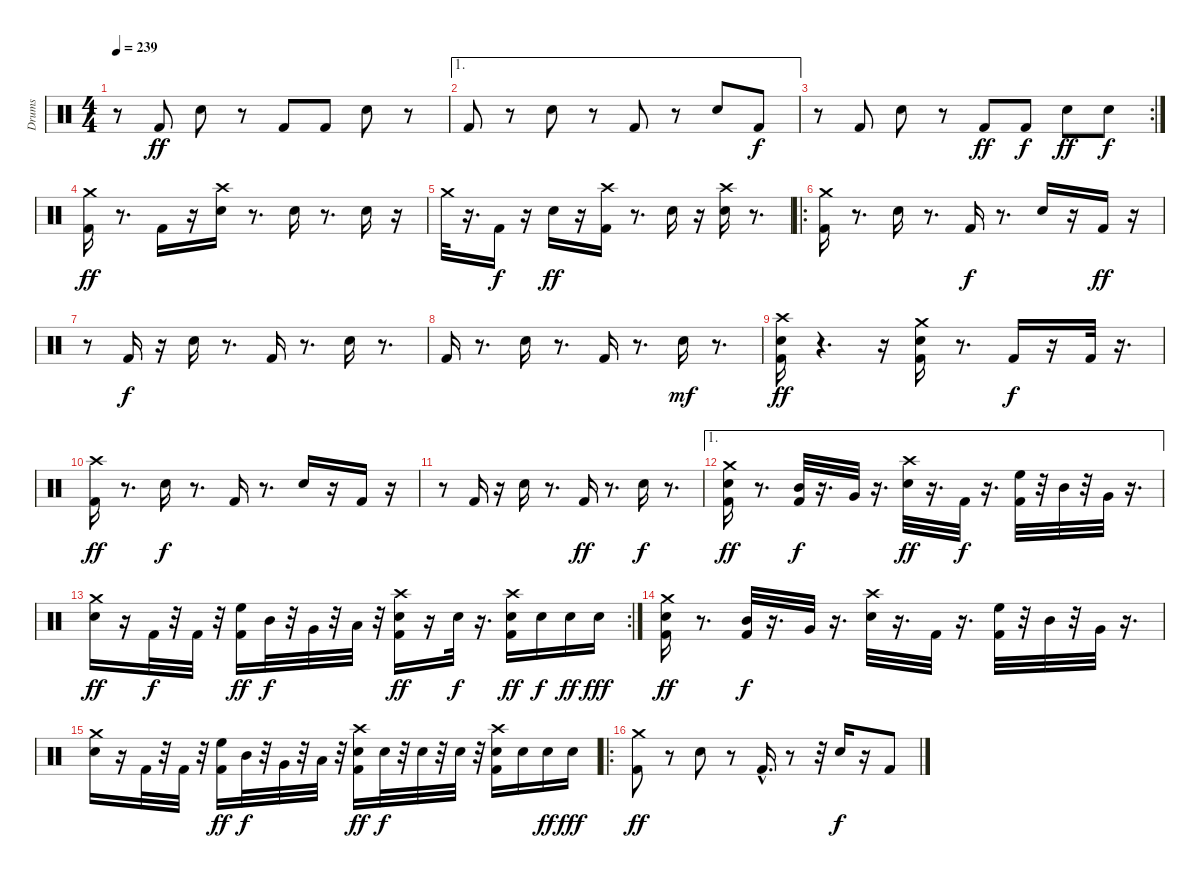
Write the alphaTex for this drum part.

\track ("Drums" "Drums") {instrument percussion}
\staff {score}
\articulation defaults
\ts (4 4)
\tempo 239
\clef neutral
\ks c
r.8{dy ff} "Kick (hit) 2".8 "Snare (hit) 2".8 r.8 "Kick (hit) 2".8 "Kick (hit) 2".8 "Snare (hit) 2".8 r.8 |
\ae 1 "Kick (hit) 2".8
r.8 "Snare (hit) 2".8 r.8 "Kick (hit) 2".8 r.8 "Snare (hit) 2".8 "Kick (hit) 2".8{dy f} |
\rc 2
r.8 "Kick (hit) 2".8 "Snare (hit) 2".8 r.8 "Kick (hit) 2".8{dy ff} "Kick (hit) 2".8{dy f} "Snare (hit) 2".8{dy ff} "Snare (hit) 2".8{dy f} |
("Kick (hit) 2" "Crash medium (hit)").16{dy ff} r.8{d} "Kick (hit) 2".16 r.16 ("Snare (hit) 2" "Crash high (hit)").16 r.8{d} "Snare (hit) 2".16 r.8{d} "Snare (hit) 2".16 r.16 |
"Crash medium (hit)".32 r.16{d} "Kick (hit) 2".16{dy f} r.16 "Snare (hit) 2".16{dy ff} r.16 ("Kick (hit) 2" "Crash high (hit)").16 r.8{d} "Snare (hit) 2".16 r.16 ("Snare (hit) 2" "Crash high (hit)").16 r.8{d} |
\ro
("Kick (hit) 2" "Crash medium (hit)").16 r.8{d} "Snare (hit) 2".16 r.8{d} "Kick (hit) 2".16{dy f} r.8{d} "Snare (hit) 2".16 r.16 "Kick (hit) 2".16{dy ff} r.16 |
r.8 "Kick (hit) 2".16{dy f} r.16 "Snare (hit) 2".16 r.8{d} "Kick (hit) 2".16 r.8{d} "Snare (hit) 2".16 r.8{d} |
"Kick (hit) 2".16 r.8{d} "Snare (hit) 2".16 r.8{d} "Kick (hit) 2".16 r.8{d} "Snare (hit) 2".16{dy mf} r.8{d} |
("Snare (hit) 2" "Kick (hit) 2" "Crash high (hit)").16{dy ff} r.4{d} r.16 ("Kick (hit) 2" "Crash medium (hit)" "Snare (hit) 2").16 r.8{d} "Kick (hit) 2".16{dy f} r.16 "Kick (hit) 2".32 r.16{d} |
("Kick (hit) 2" "Crash high (hit)").16{dy ff} r.8{d} "Snare (hit) 2".16{dy f} r.8{d} "Kick (hit) 2".16 r.8{d} "Snare (hit) 2".16 r.16 "Kick (hit) 2".16 r.16 |
r.8 "Kick (hit) 2".16 r.16 "Snare (hit) 2".16 r.8{d} "Kick (hit) 2".16{dy ff} r.8{d} "Snare (hit) 2".16{dy f} r.8{d} |
\ae 1
("Snare (hit) 2" "Crash medium (hit)" "Kick (hit) 2").16{dy ff} r.8{d} ("Kick (hit) 2" "Mid Tom (hit)").32{dy f} r.16{d} "Very Low Tom (hit)".32 r.16{d} ("Snare (hit) 2" "Crash high (hit)").32{dy ff} r.16{d} "Kick (hit) 2".32{dy f} r.16{d} ("Kick (hit) 2" "High Floor Tom (hit)").32 r.32 "Mid Tom (hit)".32 r.32 "Very Low Tom (hit)".32 r.16{d} |
\rc 2
("Snare (hit) 2" "Crash medium (hit)").16{dy ff} r.16 "Kick (hit) 2".32{dy f} r.32 "Kick (hit) 2".32 r.32 ("Kick (hit) 2" "High Floor Tom (hit)").16{dy ff} "Mid Tom (hit)".32{dy f} r.32 "Very Low Tom (hit)".32 r.32 "Low Floor Tom (hit)".32 r.32 ("Crash high (hit)" "Snare (hit) 2" "Kick (hit) 2").16{dy ff} r.16 "Snare (hit) 2".32{dy f} r.16{d} ("Snare (hit) 2" "Kick (hit) 2" "Crash high (hit)").16{dy ff} "Snare (hit) 2".16{dy f} "Snare (hit) 2".16{dy ff} "Snare (hit) 2".16{dy fff} |
("Kick (hit) 2" "Snare (hit) 2" "Crash medium (hit)").16{dy ff} r.8{d} ("Kick (hit) 2" "Mid Tom (hit)").32{dy f} r.16{d} "Very Low Tom (hit)".32 r.16{d} ("Crash high (hit)" "Snare (hit) 2").32 r.16{d} "Kick (hit) 2".32 r.16{d} ("Kick (hit) 2" "High Floor Tom (hit)").32 r.32 "Mid Tom (hit)".32 r.32 "Very Low Tom (hit)".32 r.16{d} |
("Crash medium (hit)" "Snare (hit) 2").16 r.16 "Kick (hit) 2".32 r.32 "Kick (hit) 2".32 r.32 ("Kick (hit) 2" "High Floor Tom (hit)").16{dy ff} "Mid Tom (hit)".32{dy f} r.32 "Very Low Tom (hit)".32 r.32 "Low Floor Tom (hit)".32 r.32 ("Crash high (hit)" "Snare (hit) 2" "Kick (hit) 2").16{dy ff} "Snare (hit) 2".32{dy f} r.32 "Snare (hit) 2".32 r.32 "Snare (hit) 2".32 r.32 ("Snare (hit) 2" "Kick (hit) 2" "Crash high (hit)").16 "Snare (hit) 2".16 "Snare (hit) 2".16{dy ff} "Snare (hit) 2".16{dy fff} |
\ro
("Kick (hit) 2" "Crash medium (hit)").8{dy ff} r.8 "Snare (hit) 2".8 r.8 "Kick (hit) 2"{hac}.16{d} r.8 r.32 "Snare (hit) 2".16{dy f} r.16 "Kick (hit) 2".8
